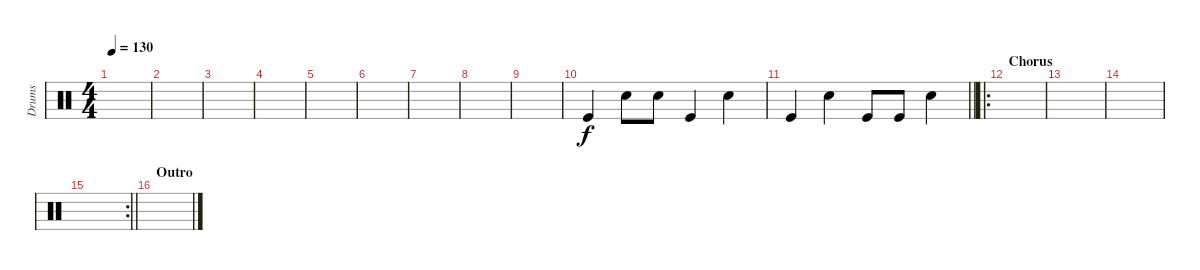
\track ("Drums" "Drums") {instrument percussion}
\staff {score}
\articulation defaults
\ts (4 4)
\tempo 130
\clef neutral
\ks c
|
|
|
|
|
|
|
|
|
"Kick (hit)".4 "Snare (hit) 2".8 "Snare (hit) 2".8 "Kick (hit)".4 "Snare (hit) 2".4 |
\barLineRight lightlight "Kick (hit)".4 "Snare (hit) 2".4 "Kick (hit)".8 "Kick (hit)".8 "Snare (hit) 2".4
|
\ro
\section ("" "Chorus")
|
|
|
\rc 2
\barLineRight lightlight
|
\section ("" "Outro")
